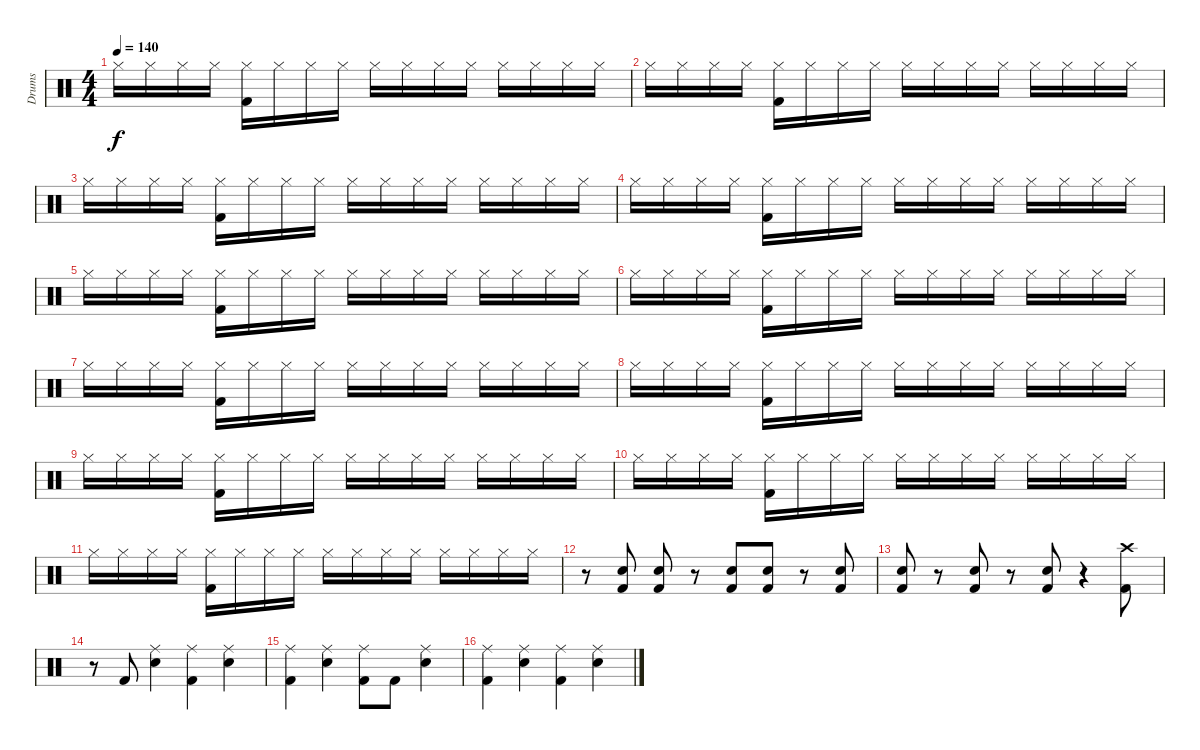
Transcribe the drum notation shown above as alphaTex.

\track ("Drums" "Drums") {instrument percussion}
\staff {score}
\articulation defaults
\ts (4 4)
\tempo 140
\clef neutral
\ks c "Hi-Hat (closed)".16{dy f} "Hi-Hat (closed)".16 "Hi-Hat (closed)".16 "Hi-Hat (closed)".16
("Hi-Hat (closed)" "Kick (hit) 2").16 "Hi-Hat (closed)".16 "Hi-Hat (closed)".16 "Hi-Hat (closed)".16 "Hi-Hat (closed)".16 "Hi-Hat (closed)".16 "Hi-Hat (closed)".16 "Hi-Hat (closed)".16 "Hi-Hat (closed)".16 "Hi-Hat (closed)".16 "Hi-Hat (closed)".16 "Hi-Hat (closed)".16 |
"Hi-Hat (closed)".16 "Hi-Hat (closed)".16 "Hi-Hat (closed)".16 "Hi-Hat (closed)".16 ("Hi-Hat (closed)" "Kick (hit) 2").16 "Hi-Hat (closed)".16 "Hi-Hat (closed)".16 "Hi-Hat (closed)".16 "Hi-Hat (closed)".16 "Hi-Hat (closed)".16 "Hi-Hat (closed)".16 "Hi-Hat (closed)".16 "Hi-Hat (closed)".16 "Hi-Hat (closed)".16 "Hi-Hat (closed)".16 "Hi-Hat (closed)".16 |
"Hi-Hat (closed)".16 "Hi-Hat (closed)".16 "Hi-Hat (closed)".16 "Hi-Hat (closed)".16 ("Hi-Hat (closed)" "Kick (hit) 2").16 "Hi-Hat (closed)".16 "Hi-Hat (closed)".16 "Hi-Hat (closed)".16 "Hi-Hat (closed)".16 "Hi-Hat (closed)".16 "Hi-Hat (closed)".16 "Hi-Hat (closed)".16 "Hi-Hat (closed)".16 "Hi-Hat (closed)".16 "Hi-Hat (closed)".16 "Hi-Hat (closed)".16 |
"Hi-Hat (closed)".16 "Hi-Hat (closed)".16 "Hi-Hat (closed)".16 "Hi-Hat (closed)".16 ("Hi-Hat (closed)" "Kick (hit) 2").16 "Hi-Hat (closed)".16 "Hi-Hat (closed)".16 "Hi-Hat (closed)".16 "Hi-Hat (closed)".16 "Hi-Hat (closed)".16 "Hi-Hat (closed)".16 "Hi-Hat (closed)".16 "Hi-Hat (closed)".16 "Hi-Hat (closed)".16 "Hi-Hat (closed)".16 "Hi-Hat (closed)".16 |
"Hi-Hat (closed)".16 "Hi-Hat (closed)".16 "Hi-Hat (closed)".16 "Hi-Hat (closed)".16 ("Hi-Hat (closed)" "Kick (hit) 2").16 "Hi-Hat (closed)".16 "Hi-Hat (closed)".16 "Hi-Hat (closed)".16 "Hi-Hat (closed)".16 "Hi-Hat (closed)".16 "Hi-Hat (closed)".16 "Hi-Hat (closed)".16 "Hi-Hat (closed)".16 "Hi-Hat (closed)".16 "Hi-Hat (closed)".16 "Hi-Hat (closed)".16 |
"Hi-Hat (closed)".16 "Hi-Hat (closed)".16 "Hi-Hat (closed)".16 "Hi-Hat (closed)".16 ("Hi-Hat (closed)" "Kick (hit) 2").16 "Hi-Hat (closed)".16 "Hi-Hat (closed)".16 "Hi-Hat (closed)".16 "Hi-Hat (closed)".16 "Hi-Hat (closed)".16 "Hi-Hat (closed)".16 "Hi-Hat (closed)".16 "Hi-Hat (closed)".16 "Hi-Hat (closed)".16 "Hi-Hat (closed)".16 "Hi-Hat (closed)".16 |
"Hi-Hat (closed)".16 "Hi-Hat (closed)".16 "Hi-Hat (closed)".16 "Hi-Hat (closed)".16 ("Hi-Hat (closed)" "Kick (hit) 2").16 "Hi-Hat (closed)".16 "Hi-Hat (closed)".16 "Hi-Hat (closed)".16 "Hi-Hat (closed)".16 "Hi-Hat (closed)".16 "Hi-Hat (closed)".16 "Hi-Hat (closed)".16 "Hi-Hat (closed)".16 "Hi-Hat (closed)".16 "Hi-Hat (closed)".16 "Hi-Hat (closed)".16 |
"Hi-Hat (closed)".16 "Hi-Hat (closed)".16 "Hi-Hat (closed)".16 "Hi-Hat (closed)".16 ("Hi-Hat (closed)" "Kick (hit) 2").16 "Hi-Hat (closed)".16 "Hi-Hat (closed)".16 "Hi-Hat (closed)".16 "Hi-Hat (closed)".16 "Hi-Hat (closed)".16 "Hi-Hat (closed)".16 "Hi-Hat (closed)".16 "Hi-Hat (closed)".16 "Hi-Hat (closed)".16 "Hi-Hat (closed)".16 "Hi-Hat (closed)".16 |
"Hi-Hat (closed)".16 "Hi-Hat (closed)".16 "Hi-Hat (closed)".16 "Hi-Hat (closed)".16 ("Hi-Hat (closed)" "Kick (hit) 2").16 "Hi-Hat (closed)".16 "Hi-Hat (closed)".16 "Hi-Hat (closed)".16 "Hi-Hat (closed)".16 "Hi-Hat (closed)".16 "Hi-Hat (closed)".16 "Hi-Hat (closed)".16 "Hi-Hat (closed)".16 "Hi-Hat (closed)".16 "Hi-Hat (closed)".16 "Hi-Hat (closed)".16 |
"Hi-Hat (closed)".16 "Hi-Hat (closed)".16 "Hi-Hat (closed)".16 "Hi-Hat (closed)".16 ("Hi-Hat (closed)" "Kick (hit) 2").16 "Hi-Hat (closed)".16 "Hi-Hat (closed)".16 "Hi-Hat (closed)".16 "Hi-Hat (closed)".16 "Hi-Hat (closed)".16 "Hi-Hat (closed)".16 "Hi-Hat (closed)".16 "Hi-Hat (closed)".16 "Hi-Hat (closed)".16 "Hi-Hat (closed)".16 "Hi-Hat (closed)".16 |
"Hi-Hat (closed)".16 "Hi-Hat (closed)".16 "Hi-Hat (closed)".16 "Hi-Hat (closed)".16 ("Hi-Hat (closed)" "Kick (hit) 2").16 "Hi-Hat (closed)".16 "Hi-Hat (closed)".16 "Hi-Hat (closed)".16 "Hi-Hat (closed)".16 "Hi-Hat (closed)".16 "Hi-Hat (closed)".16 "Hi-Hat (closed)".16 "Hi-Hat (closed)".16 "Hi-Hat (closed)".16 "Hi-Hat (closed)".16 "Hi-Hat (closed)".16 |
r.8 ("Electric Snare (hit)" "Kick (hit) 2").8 ("Electric Snare (hit)" "Kick (hit) 2").8 r.8 ("Electric Snare (hit)" "Kick (hit) 2").8 ("Electric Snare (hit)" "Kick (hit) 2").8 r.8 ("Electric Snare (hit)" "Kick (hit) 2").8 |
("Electric Snare (hit)" "Kick (hit) 2").8 r.8 ("Electric Snare (hit)" "Kick (hit) 2").8 r.8 ("Electric Snare (hit)" "Kick (hit) 2").8 r.4 ("Crash high (hit)" "Kick (hit) 2").8 |
r.8 "Kick (hit) 2".8 ("Ride (middle)" "Electric Snare (hit)").4 ("Ride (middle)" "Kick (hit) 2").4 ("Ride (middle)" "Electric Snare (hit)").4 |
("Ride (middle)" "Kick (hit) 2").4 ("Ride (middle)" "Electric Snare (hit)").4 ("Ride (middle)" "Kick (hit) 2").8 "Kick (hit) 2".8 ("Ride (middle)" "Electric Snare (hit)").4 |
("Ride (middle)" "Kick (hit) 2").4 ("Ride (middle)" "Electric Snare (hit)").4 ("Ride (middle)" "Kick (hit) 2").4 ("Ride (middle)" "Electric Snare (hit)").4
